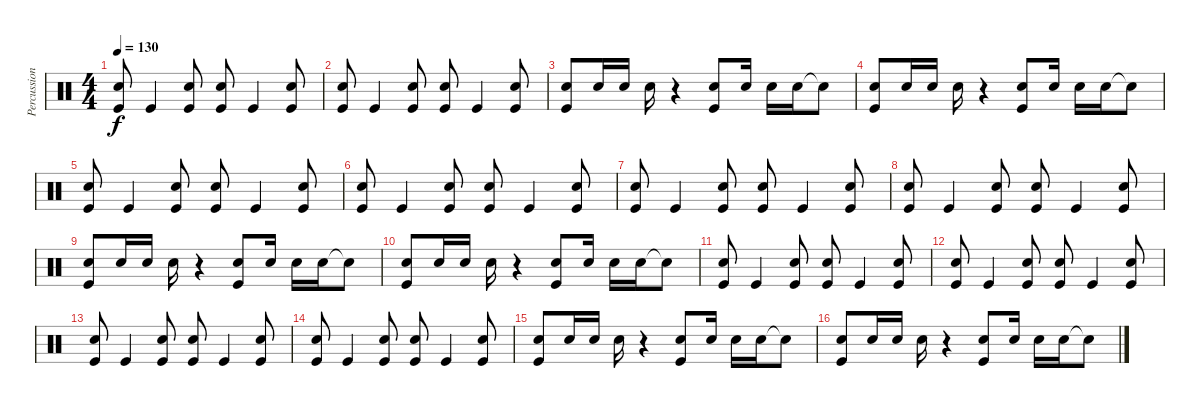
\track ("Percussion" "Percussion") {instrument percussion}
\staff {score}
\articulation defaults
\ts (4 4)
\tempo 130
\clef neutral
\ks c
("Kick (hit)" "Snare (hit) 2").8{dy f} "Kick (hit)".4 ("Kick (hit)" "Snare (hit) 2").8 ("Kick (hit)" "Snare (hit) 2").8 "Kick (hit)".4 ("Kick (hit)" "Snare (hit) 2").8 |
("Kick (hit)" "Snare (hit) 2").8 "Kick (hit)".4 ("Kick (hit)" "Snare (hit) 2").8 ("Kick (hit)" "Snare (hit) 2").8 "Kick (hit)".4 ("Kick (hit)" "Snare (hit) 2").8 |
("Kick (hit)" "Snare (hit) 2").8 "Snare (hit) 2".16 "Snare (hit) 2".16 "Snare (hit) 2".16 r.4 ("Kick (hit)" "Snare (hit) 2").8 "Snare (hit) 2".16 "Snare (hit) 2".16 "Snare (hit) 2".16 "Snare (hit)"{t}.8 |
("Kick (hit)" "Snare (hit) 2").8 "Snare (hit) 2".16 "Snare (hit) 2".16 "Snare (hit) 2".16 r.4 ("Kick (hit)" "Snare (hit) 2").8 "Snare (hit) 2".16 "Snare (hit) 2".16 "Snare (hit) 2".16 "Snare (hit)"{t}.8 |
("Kick (hit)" "Snare (hit) 2").8 "Kick (hit)".4 ("Kick (hit)" "Snare (hit) 2").8 ("Kick (hit)" "Snare (hit) 2").8 "Kick (hit)".4 ("Kick (hit)" "Snare (hit) 2").8 |
("Kick (hit)" "Snare (hit) 2").8 "Kick (hit)".4 ("Kick (hit)" "Snare (hit) 2").8 ("Kick (hit)" "Snare (hit) 2").8 "Kick (hit)".4 ("Kick (hit)" "Snare (hit) 2").8 |
("Kick (hit)" "Snare (hit) 2").8 "Kick (hit)".4 ("Kick (hit)" "Snare (hit) 2").8 ("Kick (hit)" "Snare (hit) 2").8 "Kick (hit)".4 ("Kick (hit)" "Snare (hit) 2").8 |
("Kick (hit)" "Snare (hit) 2").8 "Kick (hit)".4 ("Kick (hit)" "Snare (hit) 2").8 ("Kick (hit)" "Snare (hit) 2").8 "Kick (hit)".4 ("Kick (hit)" "Snare (hit) 2").8 |
("Kick (hit)" "Snare (hit) 2").8 "Snare (hit) 2".16 "Snare (hit) 2".16 "Snare (hit) 2".16 r.4 ("Kick (hit)" "Snare (hit) 2").8 "Snare (hit) 2".16 "Snare (hit) 2".16 "Snare (hit) 2".16 "Snare (hit)"{t}.8 |
("Kick (hit)" "Snare (hit) 2").8 "Snare (hit) 2".16 "Snare (hit) 2".16 "Snare (hit) 2".16 r.4 ("Kick (hit)" "Snare (hit) 2").8 "Snare (hit) 2".16 "Snare (hit) 2".16 "Snare (hit) 2".16 "Snare (hit)"{t}.8 |
("Kick (hit)" "Snare (hit) 2").8 "Kick (hit)".4 ("Kick (hit)" "Snare (hit) 2").8 ("Kick (hit)" "Snare (hit) 2").8 "Kick (hit)".4 ("Kick (hit)" "Snare (hit) 2").8 |
("Kick (hit)" "Snare (hit) 2").8 "Kick (hit)".4 ("Kick (hit)" "Snare (hit) 2").8 ("Kick (hit)" "Snare (hit) 2").8 "Kick (hit)".4 ("Kick (hit)" "Snare (hit) 2").8 |
("Kick (hit)" "Snare (hit) 2").8 "Kick (hit)".4 ("Kick (hit)" "Snare (hit) 2").8 ("Kick (hit)" "Snare (hit) 2").8 "Kick (hit)".4 ("Kick (hit)" "Snare (hit) 2").8 |
("Kick (hit)" "Snare (hit) 2").8 "Kick (hit)".4 ("Kick (hit)" "Snare (hit) 2").8 ("Kick (hit)" "Snare (hit) 2").8 "Kick (hit)".4 ("Kick (hit)" "Snare (hit) 2").8 |
("Kick (hit)" "Snare (hit) 2").8 "Snare (hit) 2".16 "Snare (hit) 2".16 "Snare (hit) 2".16 r.4 ("Kick (hit)" "Snare (hit) 2").8 "Snare (hit) 2".16 "Snare (hit) 2".16 "Snare (hit) 2".16 "Snare (hit)"{t}.8 |
("Kick (hit)" "Snare (hit) 2").8 "Snare (hit) 2".16 "Snare (hit) 2".16 "Snare (hit) 2".16 r.4 ("Kick (hit)" "Snare (hit) 2").8 "Snare (hit) 2".16 "Snare (hit) 2".16 "Snare (hit) 2".16 "Snare (hit)"{t}.8
